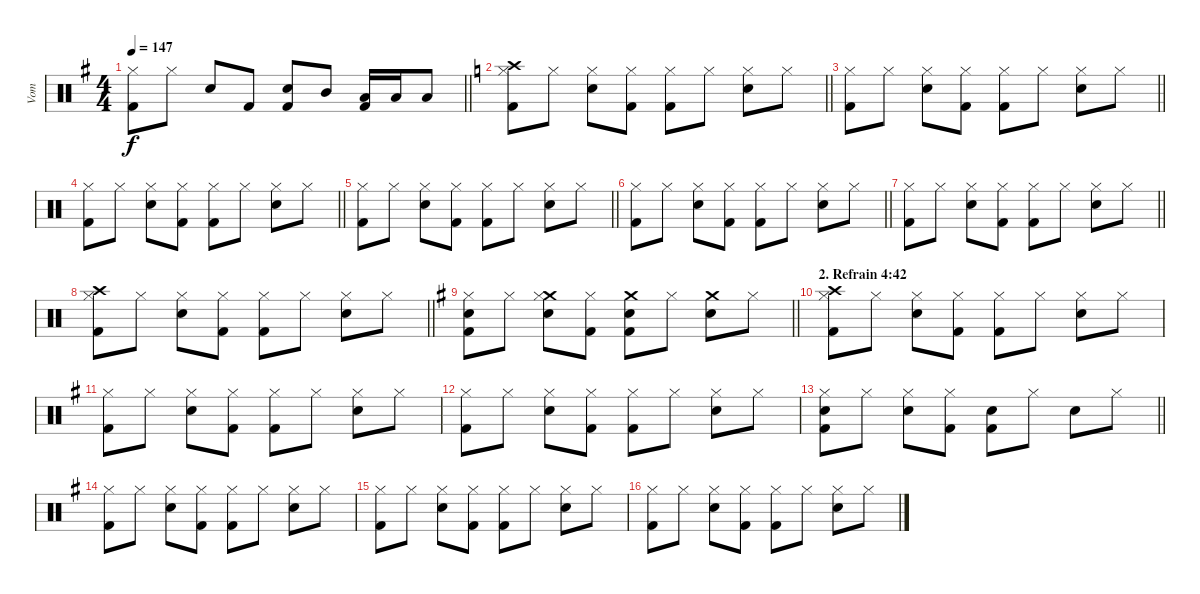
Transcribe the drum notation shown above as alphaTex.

\track ("Vom" "Vom") {instrument percussion}
\staff {score}
\articulation defaults
\ts (4 4)
\tempo 147
\clef neutral
\barLineRight lightlight
\ks g
("Hi-Hat (closed)" "Kick (hit) 2").8{dy f} "Hi-Hat (closed)".8 "Snare (hit) 2".8 "Kick (hit) 2".8 ("Snare (hit) 2" "Kick (hit) 2").8 "Mid Tom (hit)".8 ("Low Tom (hit)" "Kick (hit) 2").16 "Low Tom (hit)".16 "Low Tom (hit)".8 |
\barLineRight lightlight
\ks c
("Crash high (hit)" "Hi-Hat (closed)" "Kick (hit) 2").8 "Hi-Hat (closed)".8 ("Hi-Hat (closed)" "Snare (hit) 2").8 ("Hi-Hat (closed)" "Kick (hit) 2").8 ("Hi-Hat (closed)" "Kick (hit) 2").8 "Hi-Hat (closed)".8 ("Hi-Hat (closed)" "Snare (hit) 2").8 "Hi-Hat (closed)".8 |
\barLineRight lightlight
("Hi-Hat (closed)" "Kick (hit) 2").8 "Hi-Hat (closed)".8 ("Hi-Hat (closed)" "Snare (hit) 2").8 ("Hi-Hat (closed)" "Kick (hit) 2").8 ("Hi-Hat (closed)" "Kick (hit) 2").8 "Hi-Hat (closed)".8 ("Hi-Hat (closed)" "Snare (hit) 2").8 "Hi-Hat (closed)".8 |
\barLineRight lightlight
("Hi-Hat (closed)" "Kick (hit) 2").8 "Hi-Hat (closed)".8 ("Hi-Hat (closed)" "Snare (hit) 2").8 ("Hi-Hat (closed)" "Kick (hit) 2").8 ("Hi-Hat (closed)" "Kick (hit) 2").8 "Hi-Hat (closed)".8 ("Hi-Hat (closed)" "Snare (hit) 2").8 "Hi-Hat (closed)".8 |
\barLineRight lightlight
("Hi-Hat (closed)" "Kick (hit) 2").8 "Hi-Hat (closed)".8 ("Hi-Hat (closed)" "Snare (hit) 2").8 ("Hi-Hat (closed)" "Kick (hit) 2").8 ("Hi-Hat (closed)" "Kick (hit) 2").8 "Hi-Hat (closed)".8 ("Hi-Hat (closed)" "Snare (hit) 2").8 "Hi-Hat (closed)".8 |
\barLineRight lightlight
("Hi-Hat (closed)" "Kick (hit) 2").8 "Hi-Hat (closed)".8 ("Hi-Hat (closed)" "Snare (hit) 2").8 ("Hi-Hat (closed)" "Kick (hit) 2").8 ("Hi-Hat (closed)" "Kick (hit) 2").8 "Hi-Hat (closed)".8 ("Hi-Hat (closed)" "Snare (hit) 2").8 "Hi-Hat (closed)".8 |
\barLineRight lightlight
("Hi-Hat (closed)" "Kick (hit) 2").8 "Hi-Hat (closed)".8 ("Hi-Hat (closed)" "Snare (hit) 2").8 ("Hi-Hat (closed)" "Kick (hit) 2").8 ("Hi-Hat (closed)" "Kick (hit) 2").8 "Hi-Hat (closed)".8 ("Hi-Hat (closed)" "Snare (hit) 2").8 "Hi-Hat (closed)".8 |
\barLineRight lightlight
("Crash high (hit)" "Hi-Hat (closed)" "Kick (hit) 2").8 "Hi-Hat (closed)".8 ("Hi-Hat (closed)" "Snare (hit) 2").8 ("Hi-Hat (closed)" "Kick (hit) 2").8 ("Hi-Hat (closed)" "Kick (hit) 2").8 "Hi-Hat (closed)".8 ("Hi-Hat (closed)" "Snare (hit) 2").8 "Hi-Hat (closed)".8 |
\barLineRight lightlight
\ks g
("Hi-Hat (closed)" "Snare (hit) 2" "Kick (hit) 2").8 "Hi-Hat (closed)".8 ("Crash medium (hit)" "Hi-Hat (closed)" "Snare (hit) 2").8 ("Hi-Hat (closed)" "Kick (hit) 2").8 ("Crash medium (hit)" "Snare (hit) 2" "Kick (hit) 2").8 "Hi-Hat (closed)".8 ("Crash medium (hit)" "Snare (hit) 2").8 "Hi-Hat (closed)".8 |
\section ("" "2. Refrain 4:42")
("Crash high (hit)" "Hi-Hat (closed)" "Kick (hit) 2").8 "Hi-Hat (closed)".8 ("Hi-Hat (closed)" "Snare (hit) 2").8 ("Hi-Hat (closed)" "Kick (hit) 2").8 ("Hi-Hat (closed)" "Kick (hit) 2").8 "Hi-Hat (closed)".8 ("Hi-Hat (closed)" "Snare (hit) 2").8 "Hi-Hat (closed)".8 |
("Hi-Hat (closed)" "Kick (hit) 2").8 "Hi-Hat (closed)".8 ("Hi-Hat (closed)" "Snare (hit) 2").8 ("Hi-Hat (closed)" "Kick (hit) 2").8 ("Hi-Hat (closed)" "Kick (hit) 2").8 "Hi-Hat (closed)".8 ("Hi-Hat (closed)" "Snare (hit) 2").8 "Hi-Hat (closed)".8 |
("Hi-Hat (closed)" "Kick (hit) 2").8 "Hi-Hat (closed)".8 ("Hi-Hat (closed)" "Snare (hit) 2").8 ("Hi-Hat (closed)" "Kick (hit) 2").8 ("Hi-Hat (closed)" "Kick (hit) 2").8 "Hi-Hat (closed)".8 ("Hi-Hat (closed)" "Snare (hit) 2").8 "Hi-Hat (closed)".8 |
\barLineRight lightlight
("Hi-Hat (closed)" "Snare (hit) 2" "Kick (hit) 2").8 "Hi-Hat (closed)".8 ("Hi-Hat (closed)" "Snare (hit) 2").8 ("Hi-Hat (closed)" "Kick (hit) 2").8 ("Snare (hit) 2" "Kick (hit) 2").8 "Hi-Hat (closed)".8 "Snare (hit) 2".8 "Hi-Hat (closed)".8 |
("Hi-Hat (closed)" "Kick (hit) 2").8 "Hi-Hat (closed)".8 ("Hi-Hat (closed)" "Snare (hit) 2").8 ("Hi-Hat (closed)" "Kick (hit) 2").8 ("Hi-Hat (closed)" "Kick (hit) 2").8 "Hi-Hat (closed)".8 ("Hi-Hat (closed)" "Snare (hit) 2").8 "Hi-Hat (closed)".8 |
("Hi-Hat (closed)" "Kick (hit) 2").8 "Hi-Hat (closed)".8 ("Hi-Hat (closed)" "Snare (hit) 2").8 ("Hi-Hat (closed)" "Kick (hit) 2").8 ("Hi-Hat (closed)" "Kick (hit) 2").8 "Hi-Hat (closed)".8 ("Hi-Hat (closed)" "Snare (hit) 2").8 "Hi-Hat (closed)".8 |
("Hi-Hat (closed)" "Kick (hit) 2").8 "Hi-Hat (closed)".8 ("Hi-Hat (closed)" "Snare (hit) 2").8 ("Hi-Hat (closed)" "Kick (hit) 2").8 ("Hi-Hat (closed)" "Kick (hit) 2").8 "Hi-Hat (closed)".8 ("Hi-Hat (closed)" "Snare (hit) 2").8 "Hi-Hat (closed)".8
